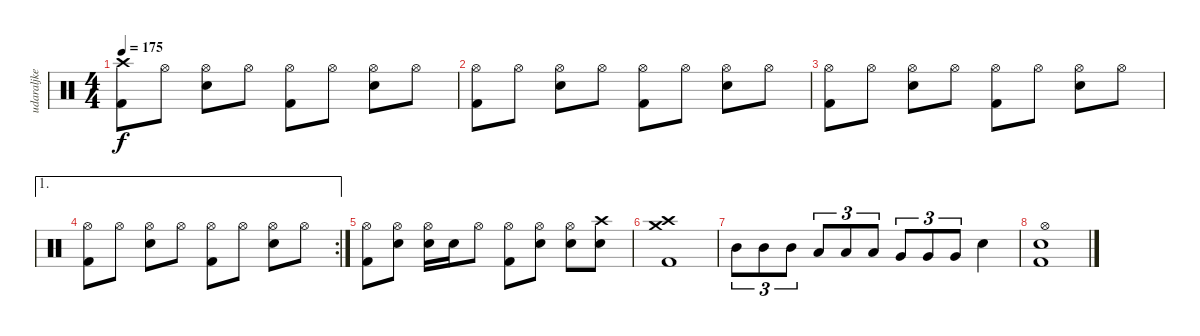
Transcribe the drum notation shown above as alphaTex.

\track ("udaraljke" "udaraljke") {instrument percussion}
\staff {score}
\articulation defaults
\ts (4 4)
\tempo 175
\clef neutral
\ks c
("Crash high (hit)" "Kick (hit) 2").8{dy f} "Hi-Hat (open)".8 ("Hi-Hat (open)" "Snare (hit) 2").8 "Hi-Hat (open)".8 ("Hi-Hat (open)" "Kick (hit) 2").8 "Hi-Hat (open)".8 ("Hi-Hat (open)" "Snare (hit) 2").8 "Hi-Hat (open)".8 |
("Hi-Hat (open)" "Kick (hit) 2").8 "Hi-Hat (open)".8 ("Hi-Hat (open)" "Snare (hit) 2").8 "Hi-Hat (open)".8 ("Hi-Hat (open)" "Kick (hit) 2").8 "Hi-Hat (open)".8 ("Hi-Hat (open)" "Snare (hit) 2").8 "Hi-Hat (open)".8 |
("Hi-Hat (open)" "Kick (hit) 2").8 "Hi-Hat (open)".8 ("Hi-Hat (open)" "Snare (hit) 2").8 "Hi-Hat (open)".8 ("Hi-Hat (open)" "Kick (hit) 2").8 "Hi-Hat (open)".8 ("Hi-Hat (open)" "Snare (hit) 2").8 "Hi-Hat (open)".8 |
\ae 1
\rc 2
("Hi-Hat (open)" "Kick (hit) 2").8 "Hi-Hat (open)".8 ("Hi-Hat (open)" "Snare (hit) 2").8 "Hi-Hat (open)".8 ("Hi-Hat (open)" "Kick (hit) 2").8 "Hi-Hat (open)".8 ("Hi-Hat (open)" "Snare (hit) 2").8 "Hi-Hat (open)".8 |
("Hi-Hat (open)" "Kick (hit) 2").8 ("Hi-Hat (open)" "Snare (hit) 2").8 ("Hi-Hat (open)" "Snare (hit) 2").16 "Snare (hit) 2".16 "Hi-Hat (open)".8 ("Hi-Hat (open)" "Kick (hit) 2").8 ("Hi-Hat (open)" "Snare (hit) 2").8 ("Hi-Hat (open)" "Snare (hit) 2").8 ("Crash high (hit)" "Snare (hit) 2").8 |
("Crash high (hit)" "Crash medium (hit)" "Kick (hit) 2").1 |
"Mid Tom (hit)".8{tu (3 2)} "Mid Tom (hit)".8{tu (3 2)} "Mid Tom (hit)".8{tu (3 2)} "Low Tom (hit)".8{tu (3 2)} "Low Tom (hit)".8{tu (3 2)} "Low Tom (hit)".8{tu (3 2)} "Very Low Tom (hit)".8{tu (3 2)} "Very Low Tom (hit)".8{tu (3 2)} "Very Low Tom (hit)".8{tu (3 2)} "Snare (hit) 2".4 |
("Hi-Hat (open)" "Snare (hit) 2" "Kick (hit) 2").1
